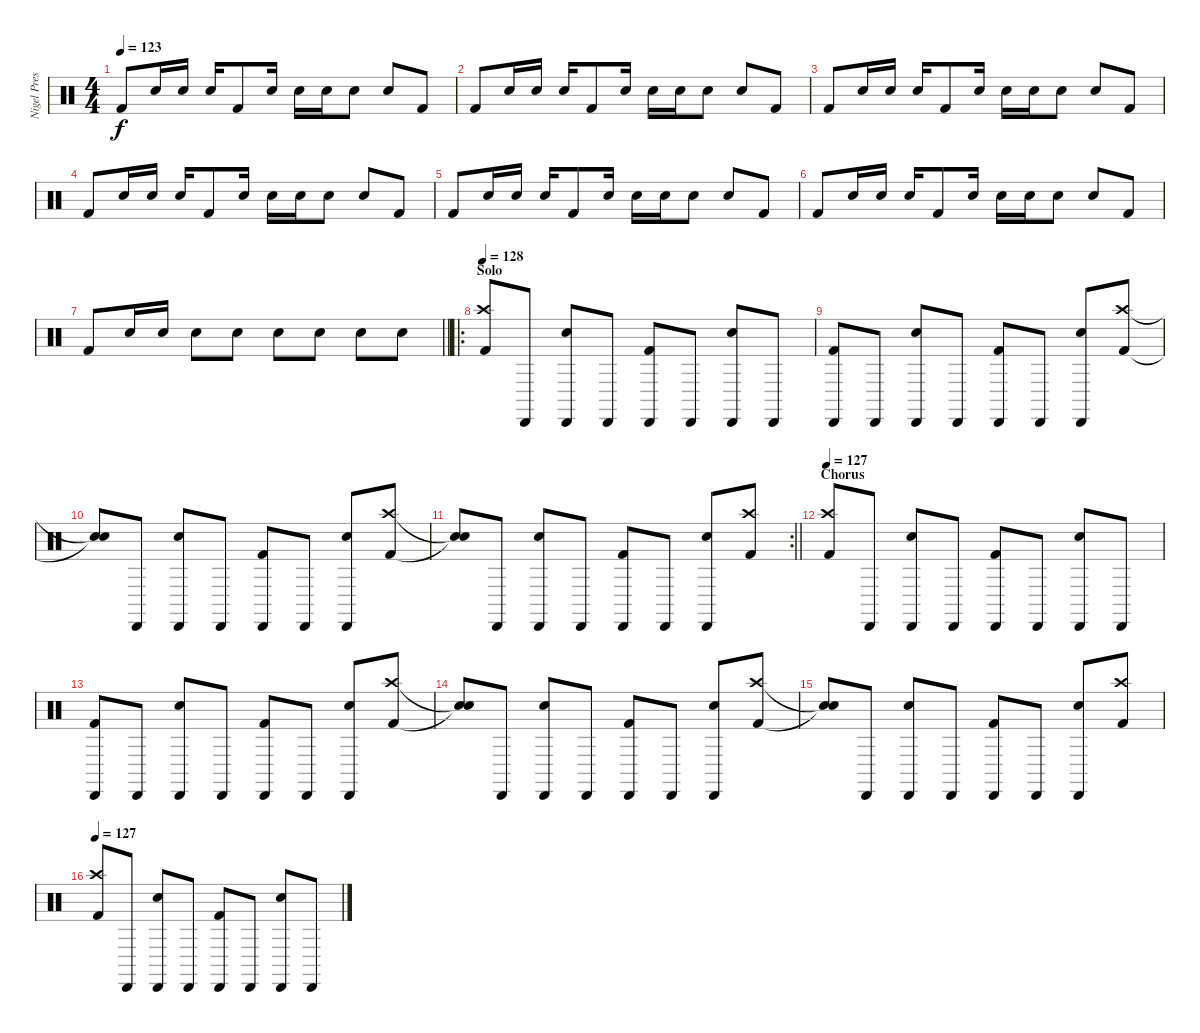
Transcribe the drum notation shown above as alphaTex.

\track ("Nigel Preston" "Nigel Pres") {instrument percussion}
\staff {score}
\articulation defaults
\ts (4 4)
\tempo 123
\clef neutral
\ks c "Kick (hit) 2".8{dy f} "Snare (hit) 2".16 "Snare (hit) 2".16 "Snare (hit) 2".16 "Kick (hit) 2".8 "Snare (hit) 2".16 "Snare (hit) 2".16 "Snare (hit) 2".16 "Snare (hit) 2".8 "Snare (hit) 2".8 "Kick (hit) 2".8
|
"Kick (hit) 2".8 "Snare (hit) 2".16 "Snare (hit) 2".16 "Snare (hit) 2".16 "Kick (hit) 2".8 "Snare (hit) 2".16 "Snare (hit) 2".16 "Snare (hit) 2".16 "Snare (hit) 2".8 "Snare (hit) 2".8 "Kick (hit) 2".8 |
"Kick (hit) 2".8 "Snare (hit) 2".16 "Snare (hit) 2".16 "Snare (hit) 2".16 "Kick (hit) 2".8 "Snare (hit) 2".16 "Snare (hit) 2".16 "Snare (hit) 2".16 "Snare (hit) 2".8 "Snare (hit) 2".8 "Kick (hit) 2".8 |
"Kick (hit) 2".8 "Snare (hit) 2".16 "Snare (hit) 2".16 "Snare (hit) 2".16 "Kick (hit) 2".8 "Snare (hit) 2".16 "Snare (hit) 2".16 "Snare (hit) 2".16 "Snare (hit) 2".8 "Snare (hit) 2".8 "Kick (hit) 2".8 |
"Kick (hit) 2".8 "Snare (hit) 2".16 "Snare (hit) 2".16 "Snare (hit) 2".16 "Kick (hit) 2".8 "Snare (hit) 2".16 "Snare (hit) 2".16 "Snare (hit) 2".16 "Snare (hit) 2".8 "Snare (hit) 2".8 "Kick (hit) 2".8 |
"Kick (hit) 2".8 "Snare (hit) 2".16 "Snare (hit) 2".16 "Snare (hit) 2".16 "Kick (hit) 2".8 "Snare (hit) 2".16 "Snare (hit) 2".16 "Snare (hit) 2".16 "Snare (hit) 2".8 "Snare (hit) 2".8 "Kick (hit) 2".8 |
\barLineRight lightlight "Kick (hit) 2".8 "Snare (hit) 2".16 "Snare (hit) 2".16 "Snare (hit) 2".8 "Snare (hit) 2".8 "Snare (hit) 2".8 "Snare (hit) 2".8 "Snare (hit) 2".8 "Snare (hit) 2".8
|
\ro
\section ("" "Solo")
\tempo 128
("Kick (hit) 2" "Crash high (hit)").8 "Cabasa (hit)".8 ("Snare (hit) 2" "Cabasa (hit)").8 "Cabasa (hit)".8 ("Kick (hit) 2" "Cabasa (hit)").8 "Cabasa (hit)".8 ("Snare (hit) 2" "Cabasa (hit)").8 "Cabasa (hit)".8 |
("Kick (hit) 2" "Cabasa (hit)").8 "Cabasa (hit)".8 ("Snare (hit) 2" "Cabasa (hit)").8 "Cabasa (hit)".8 ("Kick (hit) 2" "Cabasa (hit)").8 "Cabasa (hit)".8 ("Snare (hit) 2" "Cabasa (hit)").8 ("Kick (hit) 2" "Crash high (hit)").8 |
("Snare (hit)"{t} "Snare (hit)"{t}).8 "Cabasa (hit)".8 ("Snare (hit) 2" "Cabasa (hit)").8 "Cabasa (hit)".8 ("Kick (hit) 2" "Cabasa (hit)").8 "Cabasa (hit)".8 ("Snare (hit) 2" "Cabasa (hit)").8 ("Kick (hit) 2" "Crash high (hit)").8 |
\rc 2
\barLineRight lightlight
("Snare (hit)"{t} "Snare (hit)"{t}).8 "Cabasa (hit)".8 ("Snare (hit) 2" "Cabasa (hit)").8 "Cabasa (hit)".8 ("Kick (hit) 2" "Cabasa (hit)").8 "Cabasa (hit)".8 ("Snare (hit) 2" "Cabasa (hit)").8 ("Kick (hit) 2" "Crash high (hit)").8 |
\section ("" "Chorus")
\tempo 127
("Kick (hit) 2" "Crash high (hit)").8 "Cabasa (hit)".8 ("Snare (hit) 2" "Cabasa (hit)").8 "Cabasa (hit)".8 ("Kick (hit) 2" "Cabasa (hit)").8 "Cabasa (hit)".8 ("Snare (hit) 2" "Cabasa (hit)").8 "Cabasa (hit)".8 |
("Kick (hit) 2" "Cabasa (hit)").8 "Cabasa (hit)".8 ("Snare (hit) 2" "Cabasa (hit)").8 "Cabasa (hit)".8 ("Kick (hit) 2" "Cabasa (hit)").8 "Cabasa (hit)".8 ("Snare (hit) 2" "Cabasa (hit)").8 ("Kick (hit) 2" "Crash high (hit)").8 |
("Snare (hit)"{t} "Snare (hit)"{t}).8 "Cabasa (hit)".8 ("Snare (hit) 2" "Cabasa (hit)").8 "Cabasa (hit)".8 ("Kick (hit) 2" "Cabasa (hit)").8 "Cabasa (hit)".8 ("Snare (hit) 2" "Cabasa (hit)").8 ("Kick (hit) 2" "Crash high (hit)").8 |
("Snare (hit)"{t} "Snare (hit)"{t}).8 "Cabasa (hit)".8 ("Snare (hit) 2" "Cabasa (hit)").8 "Cabasa (hit)".8 ("Kick (hit) 2" "Cabasa (hit)").8 "Cabasa (hit)".8 ("Snare (hit) 2" "Cabasa (hit)").8 ("Kick (hit) 2" "Crash high (hit)").8 |
\tempo 127
("Kick (hit) 2" "Crash high (hit)").8 "Cabasa (hit)".8 ("Snare (hit) 2" "Cabasa (hit)").8 "Cabasa (hit)".8 ("Kick (hit) 2" "Cabasa (hit)").8 "Cabasa (hit)".8 ("Snare (hit) 2" "Cabasa (hit)").8 "Cabasa (hit)".8
